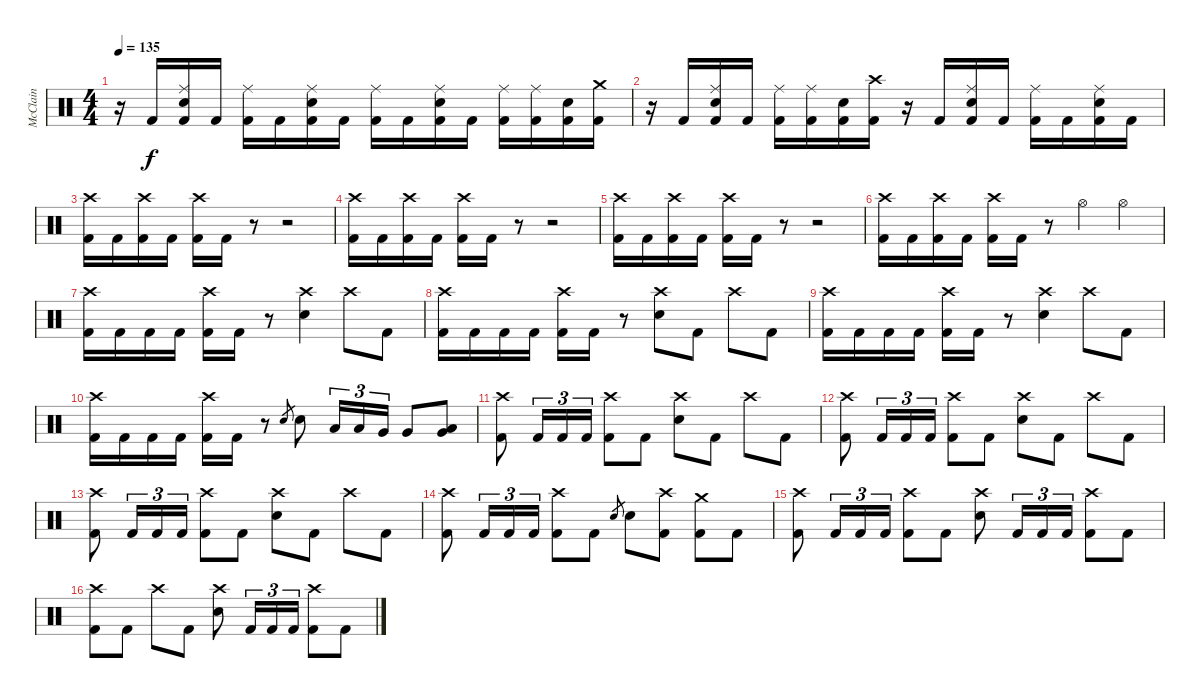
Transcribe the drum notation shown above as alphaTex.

\track ("McClain" "McClain") {instrument percussion}
\staff {score}
\articulation defaults
\ts (4 4)
\tempo 135
\clef neutral
\ks c
r.16{dy f} "Kick (hit) 2".16 ("Ride (middle)" "Electric Snare (hit)" "Kick (hit) 2").16 "Kick (hit) 2".16 ("Ride (middle)" "Kick (hit) 2").16 "Kick (hit) 2".16 ("Ride (middle)" "Electric Snare (hit)" "Kick (hit) 2").16 "Kick (hit) 2".16 ("Ride (middle)" "Kick (hit) 2").16 "Kick (hit) 2".16 ("Ride (middle)" "Electric Snare (hit)" "Kick (hit) 2").16 "Kick (hit) 2".16 ("Ride (middle)" "Kick (hit) 2").16 ("Ride (middle)" "Kick (hit) 2").16 ("Electric Snare (hit)" "Kick (hit) 2").16 ("Crash medium (hit)" "Kick (hit) 2").16 |
r.16 "Kick (hit) 2".16 ("Ride (middle)" "Electric Snare (hit)" "Kick (hit) 2").16 "Kick (hit) 2".16 ("Ride (middle)" "Kick (hit) 2").16 ("Ride (middle)" "Kick (hit) 2").16 ("Electric Snare (hit)" "Kick (hit) 2").16 ("Crash high (hit)" "Kick (hit) 2").16 r.16 "Kick (hit) 2".16 ("Ride (middle)" "Electric Snare (hit)" "Kick (hit) 2").16 "Kick (hit) 2".16 ("Ride (middle)" "Kick (hit) 2").16 "Kick (hit) 2".16 ("Ride (middle)" "Electric Snare (hit)" "Kick (hit) 2").16 "Kick (hit) 2".16 |
("Crash high (hit)" "Kick (hit) 2").16 "Kick (hit) 2".16 ("Crash high (hit)" "Kick (hit) 2").16 "Kick (hit) 2".16 ("Crash high (hit)" "Kick (hit) 2").16 "Kick (hit) 2".16 r.8 r.2 |
("Crash high (hit)" "Kick (hit) 2").16 "Kick (hit) 2".16 ("Crash high (hit)" "Kick (hit) 2").16 "Kick (hit) 2".16 ("Crash high (hit)" "Kick (hit) 2").16 "Kick (hit) 2".16 r.8 r.2 |
("Crash high (hit)" "Kick (hit) 2").16 "Kick (hit) 2".16 ("Crash high (hit)" "Kick (hit) 2").16 "Kick (hit) 2".16 ("Crash high (hit)" "Kick (hit) 2").16 "Kick (hit) 2".16 r.8 r.2 |
("Crash high (hit)" "Kick (hit) 2").16 "Kick (hit) 2".16 ("Crash high (hit)" "Kick (hit) 2").16 "Kick (hit) 2".16 ("Crash high (hit)" "Kick (hit) 2").16 "Kick (hit) 2".16 r.8 "Hi-Hat (open)".4 "Hi-Hat (open)".4 |
("Crash high (hit)" "Kick (hit) 2").16 "Kick (hit) 2".16 "Kick (hit) 2".16 "Kick (hit) 2".16 ("Crash high (hit)" "Kick (hit) 2").16 "Kick (hit) 2".16 r.8 ("Crash high (hit)" "Electric Snare (hit)").4 "Crash high (hit)".8 "Kick (hit) 2".8 |
("Crash high (hit)" "Kick (hit) 2").16 "Kick (hit) 2".16 "Kick (hit) 2".16 "Kick (hit) 2".16 ("Crash high (hit)" "Kick (hit) 2").16 "Kick (hit) 2".16 r.8 ("Crash high (hit)" "Electric Snare (hit)").8 "Kick (hit) 2".8 "Crash high (hit)".8 "Kick (hit) 2".8 |
("Crash high (hit)" "Kick (hit) 2").16 "Kick (hit) 2".16 "Kick (hit) 2".16 "Kick (hit) 2".16 ("Crash high (hit)" "Kick (hit) 2").16 "Kick (hit) 2".16 r.8 ("Crash high (hit)" "Electric Snare (hit)").4 "Crash high (hit)".8 "Kick (hit) 2".8 |
("Crash high (hit)" "Kick (hit) 2").16 "Kick (hit) 2".16 "Kick (hit) 2".16 "Kick (hit) 2".16 ("Crash high (hit)" "Kick (hit) 2").16 "Kick (hit) 2".16 r.8 "Electric Snare (hit)".8{gr} "Electric Snare (hit)".8 "Low Tom (hit)".16{tu (3 2)} "Low Tom (hit)".16{tu (3 2)} "Very Low Tom (hit)".16{tu (3 2)} "Very Low Tom (hit)".8 ("Very Low Tom (hit)" "Low Floor Tom (hit)").8 |
("Crash high (hit)" "Kick (hit) 2").8 "Kick (hit) 2".16{tu (3 2)} "Kick (hit) 2".16{tu (3 2)} "Kick (hit) 2".16{tu (3 2)} ("Crash high (hit)" "Kick (hit) 2").8 "Kick (hit) 2".8 ("Crash high (hit)" "Electric Snare (hit)").8 "Kick (hit) 2".8 "Crash high (hit)".8 "Kick (hit) 2".8 |
("Crash high (hit)" "Kick (hit) 2").8 "Kick (hit) 2".16{tu (3 2)} "Kick (hit) 2".16{tu (3 2)} "Kick (hit) 2".16{tu (3 2)} ("Crash high (hit)" "Kick (hit) 2").8 "Kick (hit) 2".8 ("Crash high (hit)" "Electric Snare (hit)").8 "Kick (hit) 2".8 "Crash high (hit)".8 "Kick (hit) 2".8 |
("Crash high (hit)" "Kick (hit) 2").8 "Kick (hit) 2".16{tu (3 2)} "Kick (hit) 2".16{tu (3 2)} "Kick (hit) 2".16{tu (3 2)} ("Crash high (hit)" "Kick (hit) 2").8 "Kick (hit) 2".8 ("Crash high (hit)" "Electric Snare (hit)").8 "Kick (hit) 2".8 "Crash high (hit)".8 "Kick (hit) 2".8 |
("Crash high (hit)" "Kick (hit) 2").8 "Kick (hit) 2".16{tu (3 2)} "Kick (hit) 2".16{tu (3 2)} "Kick (hit) 2".16{tu (3 2)} ("Crash high (hit)" "Kick (hit) 2").8 "Kick (hit) 2".8 "Electric Snare (hit)".8{gr} "Electric Snare (hit)".8 ("Crash high (hit)" "Kick (hit) 2").8 ("Crash medium (hit)" "Kick (hit) 2").8 "Kick (hit) 2".8 |
("Crash high (hit)" "Kick (hit) 2").8 "Kick (hit) 2".16{tu (3 2)} "Kick (hit) 2".16{tu (3 2)} "Kick (hit) 2".16{tu (3 2)} ("Crash high (hit)" "Kick (hit) 2").8 "Kick (hit) 2".8 ("Crash high (hit)" "Electric Snare (hit)").8 "Kick (hit) 2".16{tu (3 2)} "Kick (hit) 2".16{tu (3 2)} "Kick (hit) 2".16{tu (3 2)} ("Crash high (hit)" "Kick (hit) 2").8 "Kick (hit) 2".8 |
("Crash high (hit)" "Kick (hit) 2").8 "Kick (hit) 2".8 "Crash high (hit)".8 "Kick (hit) 2".8 ("Crash high (hit)" "Electric Snare (hit)").8 "Kick (hit) 2".16{tu (3 2)} "Kick (hit) 2".16{tu (3 2)} "Kick (hit) 2".16{tu (3 2)} ("Crash high (hit)" "Kick (hit) 2").8 "Kick (hit) 2".8
